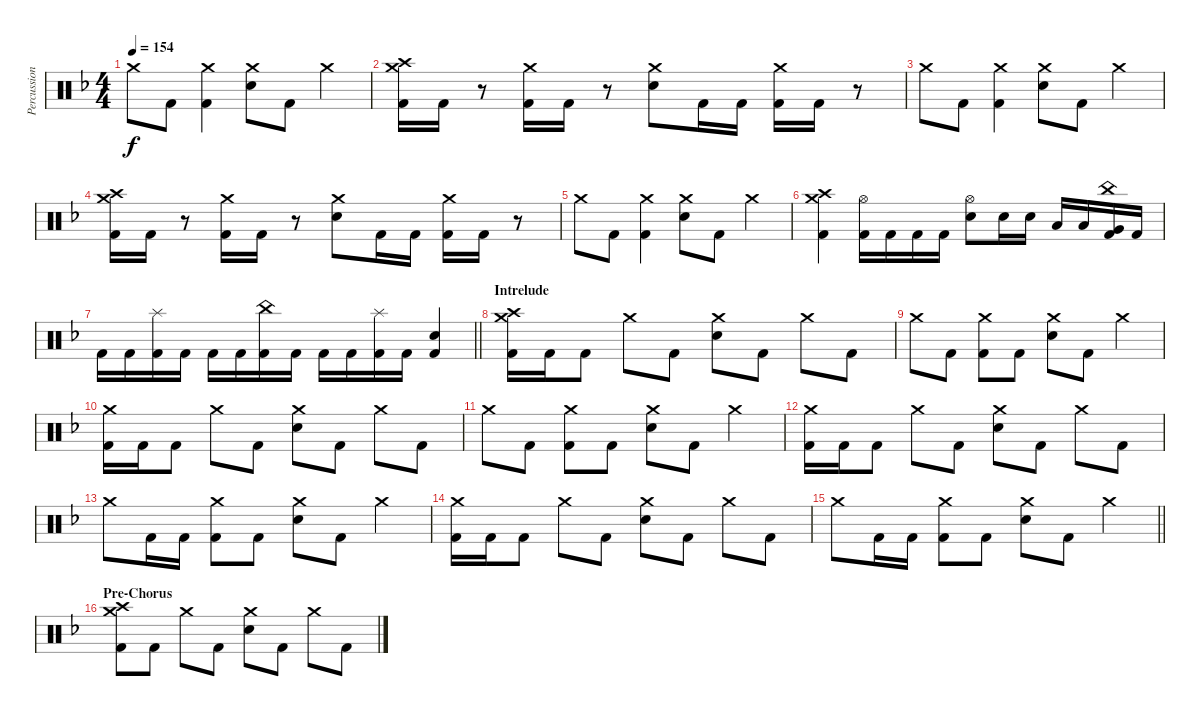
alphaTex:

\track ("Percussion" "Percussion") {instrument percussion}
\staff {score}
\articulation defaults
\ts (4 4)
\tempo 154
\clef neutral
\ks dminor "Crash medium (hit)".8{dy f} "Kick (hit) 2".8
("Crash medium (hit)" "Kick (hit) 2").4 ("Crash medium (hit)" "Electric Snare (hit)").8 "Kick (hit) 2".8 "Crash medium (hit)".4 |
("Crash medium (hit)" "Crash high (hit)" "Kick (hit) 2").16 "Kick (hit) 2".16 r.8 ("Crash medium (hit)" "Kick (hit) 2").16 "Kick (hit) 2".16 r.8 ("Crash medium (hit)" "Electric Snare (hit)").8 "Kick (hit) 2".16 "Kick (hit) 2".16 ("Crash medium (hit)" "Kick (hit) 2").16 "Kick (hit) 2".16 r.8 |
"Crash medium (hit)".8 "Kick (hit) 2".8 ("Crash medium (hit)" "Kick (hit) 2").4 ("Crash medium (hit)" "Electric Snare (hit)").8 "Kick (hit) 2".8 "Crash medium (hit)".4 |
("Crash medium (hit)" "Crash high (hit)" "Kick (hit) 2").16 "Kick (hit) 2".16 r.8 ("Crash medium (hit)" "Kick (hit) 2").16 "Kick (hit) 2".16 r.8 ("Crash medium (hit)" "Electric Snare (hit)").8 "Kick (hit) 2".16 "Kick (hit) 2".16 ("Crash medium (hit)" "Kick (hit) 2").16 "Kick (hit) 2".16 r.8 |
"Crash medium (hit)".8 "Kick (hit) 2".8 ("Crash medium (hit)" "Kick (hit) 2").4 ("Crash medium (hit)" "Electric Snare (hit)").8 "Kick (hit) 2".8 "Crash medium (hit)".4 |
("Crash medium (hit)" "Crash high (hit)" "Kick (hit) 2").4 ("Hi-Hat (open)" "Kick (hit) 2").16 "Kick (hit) 2".16 "Kick (hit) 2".16 "Kick (hit) 2".16 ("Hi-Hat (open)" "Electric Snare (hit)").8 "Electric Snare (hit)".16 "Electric Snare (hit)".16 "Low Tom (hit)".16 "Low Tom (hit)".16 ("China (hit)" "Very Low Tom (hit)" "Kick (hit) 2").16 "Kick (hit) 2".16 |
\barLineRight lightlight "Kick (hit) 2".16 "Kick (hit) 2".16
("Splash (hit)" "Kick (hit) 2").16 "Kick (hit) 2".16 "Kick (hit) 2".16 "Kick (hit) 2".16 ("China (hit)" "Kick (hit) 2").16 "Kick (hit) 2".16 "Kick (hit) 2".16 "Kick (hit) 2".16 ("Splash (hit)" "Kick (hit) 2").16 "Kick (hit) 2".16 ("Electric Snare (hit)" "Kick (hit) 2").4 |
\section ("" "Intrelude")
("Crash medium (hit)" "Crash high (hit)" "Kick (hit) 2").16 "Kick (hit) 2".16 "Kick (hit) 2".8 "Crash medium (hit)".8 "Kick (hit) 2".8 ("Crash medium (hit)" "Electric Snare (hit)").8 "Kick (hit) 2".8 "Crash medium (hit)".8 "Kick (hit) 2".8 |
"Crash medium (hit)".8 "Kick (hit) 2".8 ("Crash medium (hit)" "Kick (hit) 2").8 "Kick (hit) 2".8 ("Crash medium (hit)" "Electric Snare (hit)").8 "Kick (hit) 2".8 "Crash medium (hit)".4 |
("Crash medium (hit)" "Kick (hit) 2").16 "Kick (hit) 2".16 "Kick (hit) 2".8 "Crash medium (hit)".8 "Kick (hit) 2".8 ("Crash medium (hit)" "Electric Snare (hit)").8 "Kick (hit) 2".8 "Crash medium (hit)".8 "Kick (hit) 2".8 |
"Crash medium (hit)".8 "Kick (hit) 2".8 ("Crash medium (hit)" "Kick (hit) 2").8 "Kick (hit) 2".8 ("Crash medium (hit)" "Electric Snare (hit)").8 "Kick (hit) 2".8 "Crash medium (hit)".4 |
("Crash medium (hit)" "Kick (hit) 2").16 "Kick (hit) 2".16 "Kick (hit) 2".8 "Crash medium (hit)".8 "Kick (hit) 2".8 ("Crash medium (hit)" "Electric Snare (hit)").8 "Kick (hit) 2".8 "Crash medium (hit)".8 "Kick (hit) 2".8 |
"Crash medium (hit)".8 "Kick (hit) 2".16 "Kick (hit) 2".16 ("Crash medium (hit)" "Kick (hit) 2").8 "Kick (hit) 2".8 ("Crash medium (hit)" "Electric Snare (hit)").8 "Kick (hit) 2".8 "Crash medium (hit)".4 |
("Crash medium (hit)" "Kick (hit) 2").16 "Kick (hit) 2".16 "Kick (hit) 2".8 "Crash medium (hit)".8 "Kick (hit) 2".8 ("Crash medium (hit)" "Electric Snare (hit)").8 "Kick (hit) 2".8 "Crash medium (hit)".8 "Kick (hit) 2".8 |
\barLineRight lightlight "Crash medium (hit)".8 "Kick (hit) 2".16 "Kick (hit) 2".16
("Crash medium (hit)" "Kick (hit) 2").8 "Kick (hit) 2".8 ("Crash medium (hit)" "Electric Snare (hit)").8 "Kick (hit) 2".8 "Crash medium (hit)".4 |
\section ("" "Pre-Chorus")
("Crash medium (hit)" "Crash high (hit)" "Kick (hit) 2").8 "Kick (hit) 2".8 "Crash medium (hit)".8 "Kick (hit) 2".8 ("Crash medium (hit)" "Electric Snare (hit)").8 "Kick (hit) 2".8 "Crash medium (hit)".8 "Kick (hit) 2".8
